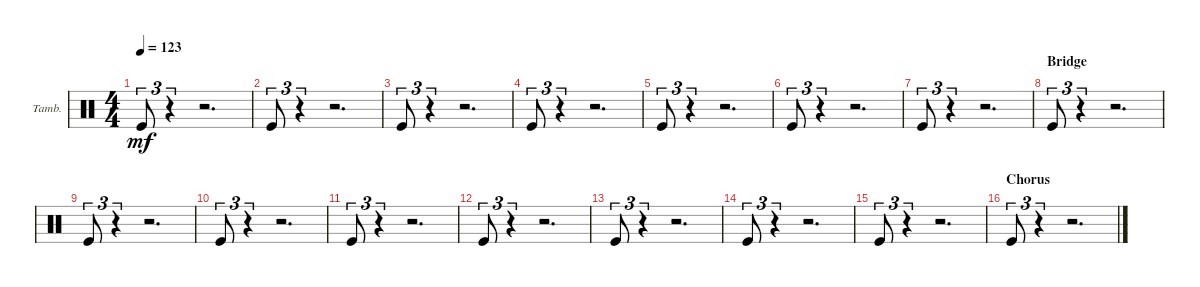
\defaultSystemsLayout 4
\bracketExtendMode groupsimilarinstruments
\firstSystemTrackNameOrientation horizontal
\otherSystemsTrackNameOrientation horizontal
\track ("Tambourine" "Tamb.") {multiBarRest instrument percussion}
\staff {score}
\articulation defaults
\ts (4 4)
\tempo 123
\clef neutral
\ks c "Kick (hit)".8{tu (3 2) dy mf}
r.4{tu (3 2)} r.2{d} |
"Kick (hit)".8{tu (3 2)} r.4{tu (3 2)} r.2{d} |
"Kick (hit)".8{tu (3 2)} r.4{tu (3 2)} r.2{d} |
"Kick (hit)".8{tu (3 2)} r.4{tu (3 2)} r.2{d} |
"Kick (hit)".8{tu (3 2)} r.4{tu (3 2)} r.2{d} |
"Kick (hit)".8{tu (3 2)} r.4{tu (3 2)} r.2{d} |
"Kick (hit)".8{tu (3 2)} r.4{tu (3 2)} r.2{d} |
\section ("" "Bridge")
"Kick (hit)".8{tu (3 2)} r.4{tu (3 2)} r.2{d} |
"Kick (hit)".8{tu (3 2)} r.4{tu (3 2)} r.2{d} |
"Kick (hit)".8{tu (3 2)} r.4{tu (3 2)} r.2{d} |
"Kick (hit)".8{tu (3 2)} r.4{tu (3 2)} r.2{d} |
"Kick (hit)".8{tu (3 2)} r.4{tu (3 2)} r.2{d} |
"Kick (hit)".8{tu (3 2)} r.4{tu (3 2)} r.2{d} |
"Kick (hit)".8{tu (3 2)} r.4{tu (3 2)} r.2{d} |
"Kick (hit)".8{tu (3 2)} r.4{tu (3 2)} r.2{d} |
\section ("" "Chorus")
"Kick (hit)".8{tu (3 2)} r.4{tu (3 2)} r.2{d}
